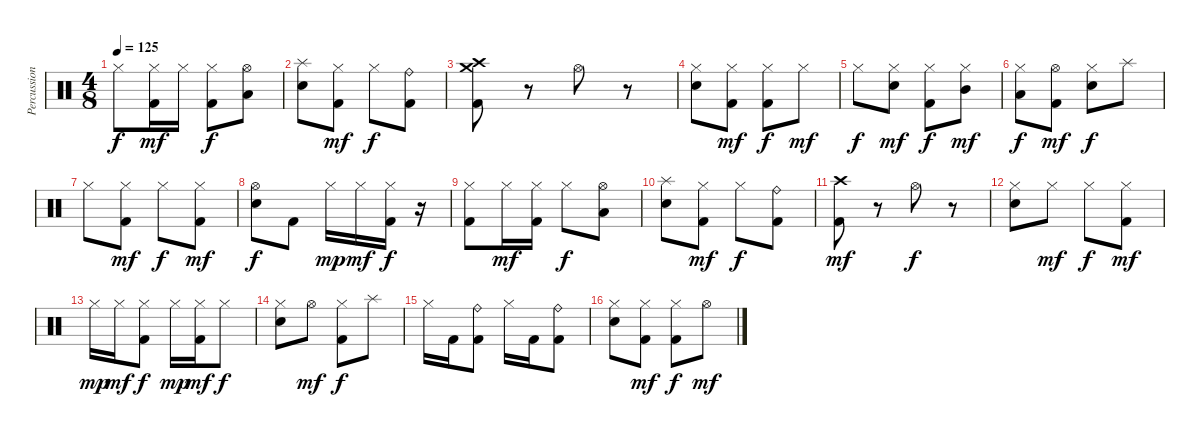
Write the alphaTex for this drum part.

\track ("Percussion" "Percussion") {instrument percussion}
\staff {score}
\articulation defaults
\ts (4 8)
\tempo 125
\clef neutral
\ks c "Hi-Hat (closed)".8{dy f}
("Hi-Hat (closed)" "Kick (hit) 2").16{dy mf} "Hi-Hat (closed)".16 ("Hi-Hat (closed)" "Kick (hit) 2").8{dy f} ("Hi-Hat (open)" "Low Tom (hit)").8 |
("Splash (hit)" "Snare (hit) 2").8 ("Hi-Hat (closed)" "Kick (hit) 2").8{dy mf} "Hi-Hat (closed)".8{dy f} ("Ride (bell)" "Kick (hit) 2").8 |
("Crash medium (hit)" "Crash high (hit)" "Kick (hit) 2").8 r.8 "Hi-Hat (open)".8 r.8 |
("Hi-Hat (closed)" "Snare (hit) 2").8 ("Hi-Hat (closed)" "Kick (hit) 2").8{dy mf} ("Hi-Hat (closed)" "Kick (hit) 2").8{dy f} "Hi-Hat (closed)".8{dy mf} |
"Hi-Hat (closed)".8{dy f} ("Hi-Hat (closed)" "Snare (hit) 2").8{dy mf} ("Hi-Hat (closed)" "Kick (hit) 2").8{dy f} ("Hi-Hat (closed)" "Mid Tom (hit)").8{dy mf} |
("Hi-Hat (closed)" "Low Tom (hit)").8{dy f} ("Hi-Hat (open)" "Kick (hit) 2").8{dy mf} ("Hi-Hat (closed)" "Snare (hit) 2").8{dy f} "Splash (hit)".8 |
"Hi-Hat (closed)".8 ("Hi-Hat (closed)" "Kick (hit) 2").8{dy mf} "Hi-Hat (closed)".8{dy f} ("Hi-Hat (closed)" "Kick (hit) 2").8{dy mf} |
("Hi-Hat (open)" "Snare (hit) 2").8{dy f} "Kick (hit) 2".8 "Hi-Hat (closed)".16{dy mp} "Hi-Hat (closed)".16{dy mf} ("Hi-Hat (closed)" "Kick (hit) 2").16{dy f} r.16 |
("Hi-Hat (closed)" "Kick (hit) 2").8 "Hi-Hat (closed)".16{dy mf} ("Hi-Hat (closed)" "Kick (hit) 2").16 "Hi-Hat (closed)".8{dy f} ("Hi-Hat (open)" "Low Tom (hit)").8 |
("Splash (hit)" "Snare (hit) 2").8 ("Hi-Hat (closed)" "Kick (hit) 2").8{dy mf} "Hi-Hat (closed)".8{dy f} ("Ride (bell)" "Kick (hit) 2").8 |
("Crash high (hit)" "Kick (hit) 2").8{dy mf} r.8 "Hi-Hat (open)".8{dy f} r.8 |
("Hi-Hat (closed)" "Snare (hit) 2").8 "Hi-Hat (closed)".8{dy mf} "Hi-Hat (closed)".8{dy f} ("Hi-Hat (closed)" "Kick (hit) 2").8{dy mf} |
"Hi-Hat (closed)".16{dy mp} "Hi-Hat (closed)".16{dy mf} ("Hi-Hat (closed)" "Kick (hit) 2").8{dy f} "Hi-Hat (closed)".16{dy mp} ("Hi-Hat (closed)" "Kick (hit) 2").16{dy mf} "Hi-Hat (closed)".8{dy f} |
("Hi-Hat (closed)" "Snare (hit) 2").8 "Hi-Hat (open)".8{dy mf} ("Hi-Hat (closed)" "Kick (hit) 2").8{dy f} "Splash (hit)".8 |
"Hi-Hat (closed)".16 "Kick (hit) 2".16 ("Ride (bell)" "Kick (hit) 2").8 "Hi-Hat (closed)".16 "Kick (hit) 2".16 ("Ride (bell)" "Kick (hit) 2").8 |
("Hi-Hat (closed)" "Snare (hit) 2").8 ("Hi-Hat (closed)" "Kick (hit) 2").8{dy mf} ("Hi-Hat (closed)" "Kick (hit) 2").8{dy f} "Hi-Hat (open)".8{dy mf}
